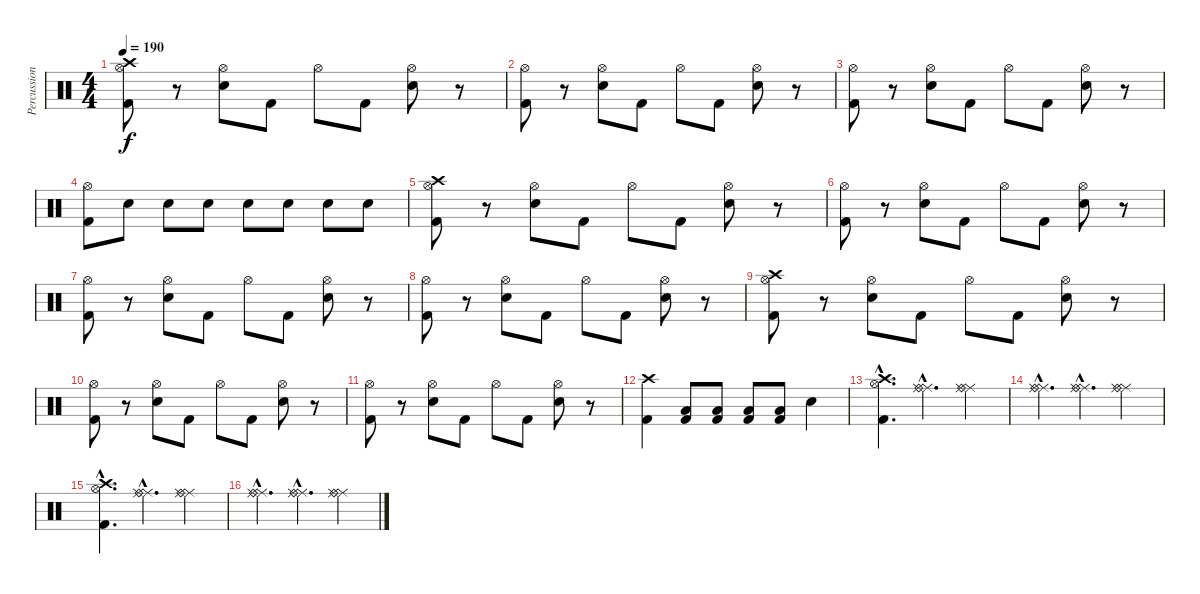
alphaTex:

\track ("Percussioni" "Percussion") {instrument percussion}
\staff {score}
\articulation defaults
\ts (4 4)
\tempo 190
\clef neutral
\ks c
("Hi-Hat (open)" "Crash high (hit)" "Kick (hit) 2").8{dy f} r.8 ("Hi-Hat (open)" "Snare (hit) 2").8 "Kick (hit) 2".8 "Hi-Hat (open)".8 "Kick (hit) 2".8 ("Hi-Hat (open)" "Snare (hit) 2").8 r.8 |
("Hi-Hat (open)" "Kick (hit) 2").8 r.8 ("Hi-Hat (open)" "Snare (hit) 2").8 "Kick (hit) 2".8 "Hi-Hat (open)".8 "Kick (hit) 2".8 ("Hi-Hat (open)" "Snare (hit) 2").8 r.8 |
("Hi-Hat (open)" "Kick (hit) 2").8 r.8 ("Hi-Hat (open)" "Snare (hit) 2").8 "Kick (hit) 2".8 "Hi-Hat (open)".8 "Kick (hit) 2".8 ("Hi-Hat (open)" "Snare (hit) 2").8 r.8 |
("Hi-Hat (open)" "Kick (hit) 2").8 "Snare (hit) 2".8 "Snare (hit) 2".8 "Snare (hit) 2".8 "Snare (hit) 2".8 "Snare (hit) 2".8 "Snare (hit) 2".8 "Snare (hit) 2".8 |
("Hi-Hat (open)" "Crash high (hit)" "Kick (hit) 2").8 r.8 ("Hi-Hat (open)" "Snare (hit) 2").8 "Kick (hit) 2".8 "Hi-Hat (open)".8 "Kick (hit) 2".8 ("Hi-Hat (open)" "Snare (hit) 2").8 r.8 |
("Hi-Hat (open)" "Kick (hit) 2").8 r.8 ("Hi-Hat (open)" "Snare (hit) 2").8 "Kick (hit) 2".8 "Hi-Hat (open)".8 "Kick (hit) 2".8 ("Hi-Hat (open)" "Snare (hit) 2").8 r.8 |
("Hi-Hat (open)" "Kick (hit) 2").8 r.8 ("Hi-Hat (open)" "Snare (hit) 2").8 "Kick (hit) 2".8 "Hi-Hat (open)".8 "Kick (hit) 2".8 ("Hi-Hat (open)" "Snare (hit) 2").8 r.8 |
("Hi-Hat (open)" "Kick (hit) 2").8 r.8 ("Hi-Hat (open)" "Snare (hit) 2").8 "Kick (hit) 2".8 "Hi-Hat (open)".8 "Kick (hit) 2".8 ("Hi-Hat (open)" "Snare (hit) 2").8 r.8 |
("Hi-Hat (open)" "Crash high (hit)" "Kick (hit) 2").8 r.8 ("Hi-Hat (open)" "Snare (hit) 2").8 "Kick (hit) 2".8 "Hi-Hat (open)".8 "Kick (hit) 2".8 ("Hi-Hat (open)" "Snare (hit) 2").8 r.8 |
("Hi-Hat (open)" "Kick (hit) 2").8 r.8 ("Hi-Hat (open)" "Snare (hit) 2").8 "Kick (hit) 2".8 "Hi-Hat (open)".8 "Kick (hit) 2".8 ("Hi-Hat (open)" "Snare (hit) 2").8 r.8 |
("Hi-Hat (open)" "Kick (hit) 2").8 r.8 ("Hi-Hat (open)" "Snare (hit) 2").8 "Kick (hit) 2".8 "Hi-Hat (open)".8 "Kick (hit) 2".8 ("Hi-Hat (open)" "Snare (hit) 2").8 r.8 |
("Crash high (hit)" "Kick (hit) 2").4 ("Kick (hit) 2" "Low Tom (hit)").8 ("Kick (hit) 2" "Low Tom (hit)").8 ("Kick (hit) 2" "Low Tom (hit)").8 ("Kick (hit) 2" "Low Tom (hit)").8 "Snare (hit) 2".4 |
("Kick (hit) 2"{hac} "Hi-Hat (open)"{hac} "Crash high (hit)"{hac}).4{d} ("Ride (middle)"{hac} "Ride (middle)"{hac} "Ride (bell)"{hac}).4{d} ("Ride (middle)" "Ride (middle)" "Ride (bell)").4 |
("Ride (middle)"{hac} "Ride (middle)"{hac} "Ride (bell)"{hac}).4{d} ("Ride (middle)"{hac} "Ride (middle)"{hac} "Ride (bell)"{hac}).4{d} ("Ride (middle)" "Ride (middle)" "Ride (bell)").4 |
("Kick (hit) 2"{hac} "Hi-Hat (open)"{hac} "Crash high (hit)"{hac}).4{d} ("Ride (middle)"{hac} "Ride (middle)"{hac} "Ride (bell)"{hac}).4{d} ("Ride (middle)" "Ride (middle)" "Ride (bell)").4 |
("Ride (middle)"{hac} "Ride (middle)"{hac} "Ride (bell)"{hac}).4{d} ("Ride (middle)"{hac} "Ride (middle)"{hac} "Ride (bell)"{hac}).4{d} ("Ride (middle)" "Ride (middle)" "Ride (bell)").4
